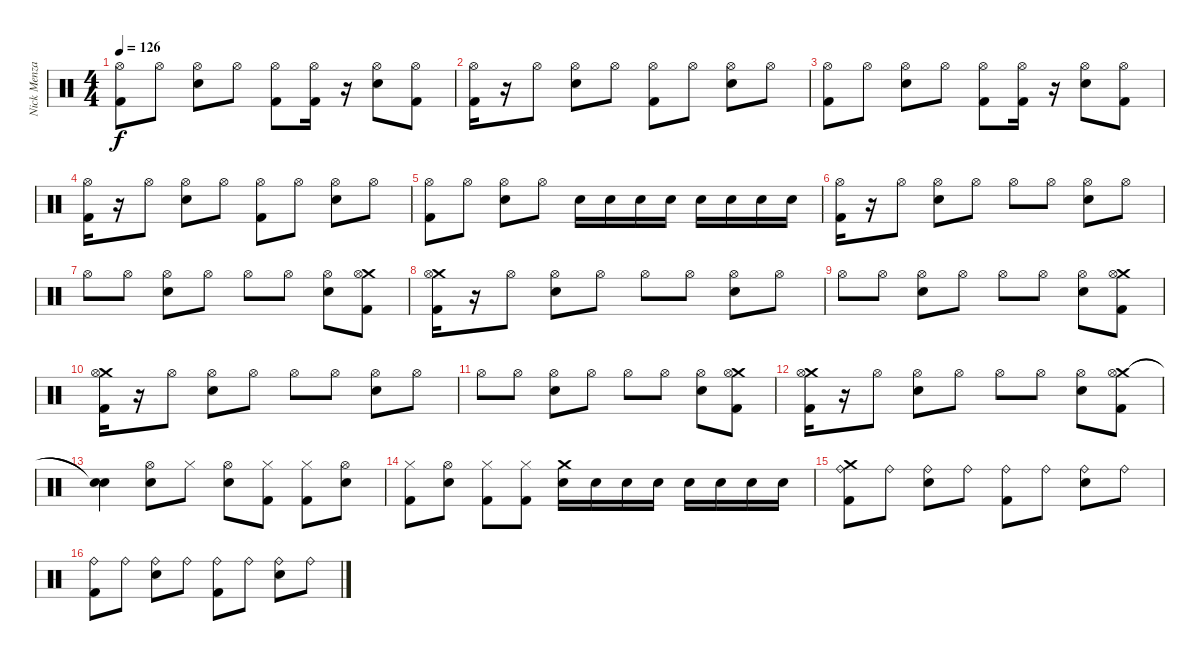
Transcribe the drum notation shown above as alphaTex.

\track ("Nick Menza" "Nick Menza") {instrument percussion}
\staff {score}
\articulation defaults
\ts (4 4)
\tempo 126
\clef neutral
\ks c
("Hi-Hat (open)" "Kick (hit) 2").8{dy f} "Hi-Hat (open)".8 ("Electric Snare (hit)" "Hi-Hat (open)").8 "Hi-Hat (open)".8 ("Hi-Hat (open)" "Kick (hit) 2").8 ("Hi-Hat (open)" "Kick (hit) 2").16 r.16 ("Electric Snare (hit)" "Hi-Hat (open)").8 ("Hi-Hat (open)" "Kick (hit) 2").8 |
("Hi-Hat (open)" "Kick (hit) 2").16 r.16 "Hi-Hat (open)".8 ("Electric Snare (hit)" "Hi-Hat (open)").8 "Hi-Hat (open)".8 ("Hi-Hat (open)" "Kick (hit) 2").8 "Hi-Hat (open)".8 ("Electric Snare (hit)" "Hi-Hat (open)").8 "Hi-Hat (open)".8 |
("Hi-Hat (open)" "Kick (hit) 2").8 "Hi-Hat (open)".8 ("Electric Snare (hit)" "Hi-Hat (open)").8 "Hi-Hat (open)".8 ("Hi-Hat (open)" "Kick (hit) 2").8 ("Hi-Hat (open)" "Kick (hit) 2").16 r.16 ("Electric Snare (hit)" "Hi-Hat (open)").8 ("Hi-Hat (open)" "Kick (hit) 2").8 |
("Hi-Hat (open)" "Kick (hit) 2").16 r.16 "Hi-Hat (open)".8 ("Electric Snare (hit)" "Hi-Hat (open)").8 "Hi-Hat (open)".8 ("Hi-Hat (open)" "Kick (hit) 2").8 "Hi-Hat (open)".8 ("Electric Snare (hit)" "Hi-Hat (open)").8 "Hi-Hat (open)".8 |
("Hi-Hat (open)" "Kick (hit) 2").8 "Hi-Hat (open)".8 ("Electric Snare (hit)" "Hi-Hat (open)").8 "Hi-Hat (open)".8 "Electric Snare (hit)".16 "Electric Snare (hit)".16 "Electric Snare (hit)".16 "Electric Snare (hit)".16 "Electric Snare (hit)".16 "Electric Snare (hit)".16 "Electric Snare (hit)".16 "Electric Snare (hit)".16 |
("Hi-Hat (open)" "Kick (hit) 2").16 r.16 "Hi-Hat (open)".8 ("Electric Snare (hit)" "Hi-Hat (open)").8 "Hi-Hat (open)".8 "Hi-Hat (open)".8 "Hi-Hat (open)".8 ("Electric Snare (hit)" "Hi-Hat (open)").8 "Hi-Hat (open)".8 |
"Hi-Hat (open)".8 "Hi-Hat (open)".8 ("Electric Snare (hit)" "Hi-Hat (open)").8 "Hi-Hat (open)".8 "Hi-Hat (open)".8 "Hi-Hat (open)".8 ("Electric Snare (hit)" "Hi-Hat (open)").8 ("Crash medium (hit)" "Hi-Hat (open)" "Kick (hit) 2").8 |
("Crash medium (hit)" "Hi-Hat (open)" "Kick (hit) 2").16 r.16 "Hi-Hat (open)".8 ("Electric Snare (hit)" "Hi-Hat (open)").8 "Hi-Hat (open)".8 "Hi-Hat (open)".8 "Hi-Hat (open)".8 ("Electric Snare (hit)" "Hi-Hat (open)").8 "Hi-Hat (open)".8 |
"Hi-Hat (open)".8 "Hi-Hat (open)".8 ("Electric Snare (hit)" "Hi-Hat (open)").8 "Hi-Hat (open)".8 "Hi-Hat (open)".8 "Hi-Hat (open)".8 ("Electric Snare (hit)" "Hi-Hat (open)").8 ("Crash medium (hit)" "Hi-Hat (open)" "Kick (hit) 2").8 |
("Crash medium (hit)" "Hi-Hat (open)" "Kick (hit) 2").16 r.16 "Hi-Hat (open)".8 ("Electric Snare (hit)" "Hi-Hat (open)").8 "Hi-Hat (open)".8 "Hi-Hat (open)".8 "Hi-Hat (open)".8 ("Electric Snare (hit)" "Hi-Hat (open)").8 "Hi-Hat (open)".8 |
"Hi-Hat (open)".8 "Hi-Hat (open)".8 ("Electric Snare (hit)" "Hi-Hat (open)").8 "Hi-Hat (open)".8 "Hi-Hat (open)".8 "Hi-Hat (open)".8 ("Electric Snare (hit)" "Hi-Hat (open)").8 ("Crash medium (hit)" "Hi-Hat (open)" "Kick (hit) 2").8 |
("Crash medium (hit)" "Hi-Hat (open)" "Kick (hit) 2").16 r.16 "Hi-Hat (open)".8 ("Electric Snare (hit)" "Hi-Hat (open)").8 "Hi-Hat (open)".8 "Hi-Hat (open)".8 "Hi-Hat (open)".8 ("Electric Snare (hit)" "Hi-Hat (open)").8 ("Crash medium (hit)" "Hi-Hat (open)" "Kick (hit) 2").8 |
("Snare (hit)"{t} "Snare (hit)"{t}).4 ("Hi-Hat (open)" "Electric Snare (hit)").8 "Hi-Hat (closed)".8 ("Hi-Hat (open)" "Electric Snare (hit)").8 ("Hi-Hat (closed)" "Kick (hit) 2").8 ("Hi-Hat (closed)" "Kick (hit) 2").8 ("Hi-Hat (open)" "Electric Snare (hit)").8 |
("Hi-Hat (closed)" "Kick (hit) 2").8 ("Hi-Hat (open)" "Electric Snare (hit)").8 ("Hi-Hat (closed)" "Kick (hit) 2").8 ("Hi-Hat (closed)" "Kick (hit) 2").8 ("Electric Snare (hit)" "Crash medium (hit)").16 "Electric Snare (hit)".16 "Electric Snare (hit)".16 "Electric Snare (hit)".16 "Electric Snare (hit)".16 "Electric Snare (hit)".16 "Electric Snare (hit)".16 "Electric Snare (hit)".16 |
("Crash medium (hit)" "Ride (bell)" "Kick (hit) 2").8 "Ride (bell)".8 ("Electric Snare (hit)" "Ride (bell)").8 "Ride (bell)".8 ("Ride (bell)" "Kick (hit) 2").8 "Ride (bell)".8 ("Electric Snare (hit)" "Ride (bell)").8 "Ride (bell)".8 |
("Ride (bell)" "Kick (hit) 2").8 "Ride (bell)".8 ("Electric Snare (hit)" "Ride (bell)").8 "Ride (bell)".8 ("Ride (bell)" "Kick (hit) 2").8 "Ride (bell)".8 ("Electric Snare (hit)" "Ride (bell)").8 "Ride (bell)".8
